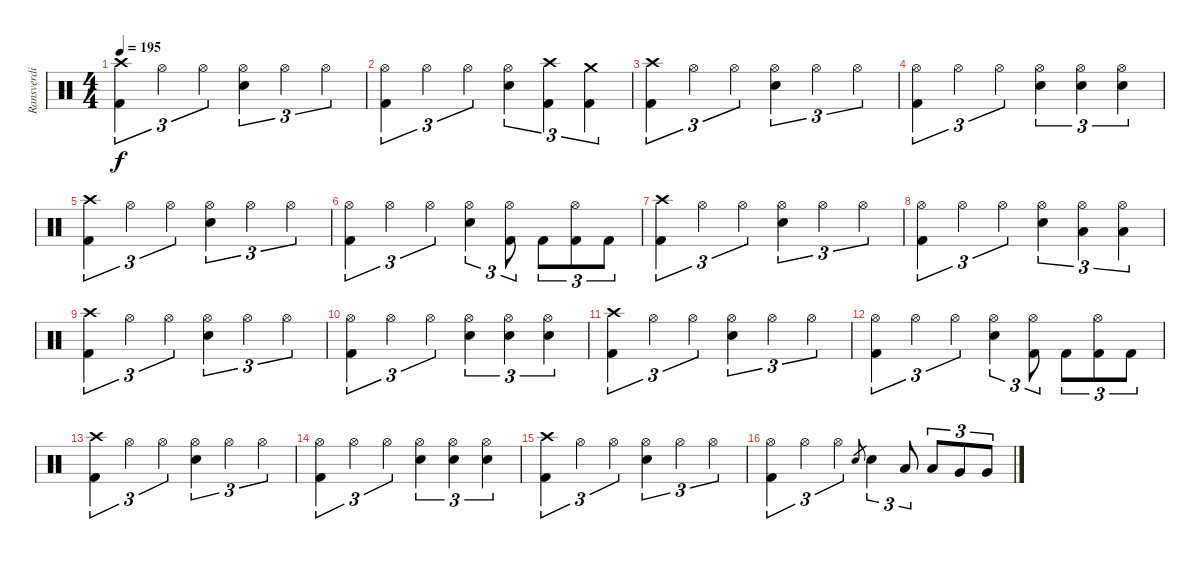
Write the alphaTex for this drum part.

\track ("Ransverdi" "Ransverdi") {instrument percussion}
\staff {score}
\articulation defaults
\ts (4 4)
\tempo 195
\clef neutral
\ks c
("Crash high (hit)" "Kick (hit) 2").4{tu (3 2) dy f} "Hi-Hat (open)".4{tu (3 2)} "Hi-Hat (open)".4{tu (3 2)} ("Hi-Hat (open)" "Snare (hit) 2").4{tu (3 2)} "Hi-Hat (open)".4{tu (3 2)} "Hi-Hat (open)".4{tu (3 2)} |
("Hi-Hat (open)" "Kick (hit) 2").4{tu (3 2)} "Hi-Hat (open)".4{tu (3 2)} "Hi-Hat (open)".4{tu (3 2)} ("Hi-Hat (open)" "Snare (hit) 2").4{tu (3 2)} ("Crash high (hit)" "Kick (hit) 2").4{tu (3 2)} ("Crash medium (hit)" "Kick (hit) 2").4{tu (3 2)} |
("Crash high (hit)" "Kick (hit) 2").4{tu (3 2)} "Hi-Hat (open)".4{tu (3 2)} "Hi-Hat (open)".4{tu (3 2)} ("Hi-Hat (open)" "Snare (hit) 2").4{tu (3 2)} "Hi-Hat (open)".4{tu (3 2)} "Hi-Hat (open)".4{tu (3 2)} |
("Hi-Hat (open)" "Kick (hit) 2").4{tu (3 2)} "Hi-Hat (open)".4{tu (3 2)} "Hi-Hat (open)".4{tu (3 2)} ("Hi-Hat (open)" "Snare (hit) 2").4{tu (3 2)} ("Hi-Hat (open)" "Snare (hit) 2").4{tu (3 2)} ("Hi-Hat (open)" "Snare (hit) 2").4{tu (3 2)} |
("Crash high (hit)" "Kick (hit) 2").4{tu (3 2)} "Hi-Hat (open)".4{tu (3 2)} "Hi-Hat (open)".4{tu (3 2)} ("Hi-Hat (open)" "Snare (hit) 2").4{tu (3 2)} "Hi-Hat (open)".4{tu (3 2)} "Hi-Hat (open)".4{tu (3 2)} |
("Hi-Hat (open)" "Kick (hit) 2").4{tu (3 2)} "Hi-Hat (open)".4{tu (3 2)} "Hi-Hat (open)".4{tu (3 2)} ("Hi-Hat (open)" "Snare (hit) 2").4{tu (3 2)} ("Hi-Hat (open)" "Kick (hit) 2").8{tu (3 2)} "Kick (hit) 2".8{tu (3 2)} ("Hi-Hat (open)" "Kick (hit) 2").8{tu (3 2)} "Kick (hit) 2".8{tu (3 2)} |
("Crash high (hit)" "Kick (hit) 2").4{tu (3 2)} "Hi-Hat (open)".4{tu (3 2)} "Hi-Hat (open)".4{tu (3 2)} ("Hi-Hat (open)" "Snare (hit) 2").4{tu (3 2)} "Hi-Hat (open)".4{tu (3 2)} "Hi-Hat (open)".4{tu (3 2)} |
("Hi-Hat (open)" "Kick (hit) 2").4{tu (3 2)} "Hi-Hat (open)".4{tu (3 2)} "Hi-Hat (open)".4{tu (3 2)} ("Hi-Hat (open)" "Snare (hit) 2").4{tu (3 2)} ("Hi-Hat (open)" "Low Tom (hit)").4{tu (3 2)} ("Hi-Hat (open)" "Low Tom (hit)").4{tu (3 2)} |
("Crash high (hit)" "Kick (hit) 2").4{tu (3 2)} "Hi-Hat (open)".4{tu (3 2)} "Hi-Hat (open)".4{tu (3 2)} ("Hi-Hat (open)" "Snare (hit) 2").4{tu (3 2)} "Hi-Hat (open)".4{tu (3 2)} "Hi-Hat (open)".4{tu (3 2)} |
("Hi-Hat (open)" "Kick (hit) 2").4{tu (3 2)} "Hi-Hat (open)".4{tu (3 2)} "Hi-Hat (open)".4{tu (3 2)} ("Hi-Hat (open)" "Snare (hit) 2").4{tu (3 2)} ("Hi-Hat (open)" "Snare (hit) 2").4{tu (3 2)} ("Hi-Hat (open)" "Snare (hit) 2").4{tu (3 2)} |
("Crash high (hit)" "Kick (hit) 2").4{tu (3 2)} "Hi-Hat (open)".4{tu (3 2)} "Hi-Hat (open)".4{tu (3 2)} ("Hi-Hat (open)" "Snare (hit) 2").4{tu (3 2)} "Hi-Hat (open)".4{tu (3 2)} "Hi-Hat (open)".4{tu (3 2)} |
("Hi-Hat (open)" "Kick (hit) 2").4{tu (3 2)} "Hi-Hat (open)".4{tu (3 2)} "Hi-Hat (open)".4{tu (3 2)} ("Hi-Hat (open)" "Snare (hit) 2").4{tu (3 2)} ("Hi-Hat (open)" "Kick (hit) 2").8{tu (3 2)} "Kick (hit) 2".8{tu (3 2)} ("Hi-Hat (open)" "Kick (hit) 2").8{tu (3 2)} "Kick (hit) 2".8{tu (3 2)} |
("Crash high (hit)" "Kick (hit) 2").4{tu (3 2)} "Hi-Hat (open)".4{tu (3 2)} "Hi-Hat (open)".4{tu (3 2)} ("Hi-Hat (open)" "Snare (hit) 2").4{tu (3 2)} "Hi-Hat (open)".4{tu (3 2)} "Hi-Hat (open)".4{tu (3 2)} |
("Hi-Hat (open)" "Kick (hit) 2").4{tu (3 2)} "Hi-Hat (open)".4{tu (3 2)} "Hi-Hat (open)".4{tu (3 2)} ("Hi-Hat (open)" "Snare (hit) 2").4{tu (3 2)} ("Hi-Hat (open)" "Snare (hit) 2").4{tu (3 2)} ("Hi-Hat (open)" "Snare (hit) 2").4{tu (3 2)} |
("Crash high (hit)" "Kick (hit) 2").4{tu (3 2)} "Hi-Hat (open)".4{tu (3 2)} "Hi-Hat (open)".4{tu (3 2)} ("Hi-Hat (open)" "Snare (hit) 2").4{tu (3 2)} "Hi-Hat (open)".4{tu (3 2)} "Hi-Hat (open)".4{tu (3 2)} |
("Hi-Hat (open)" "Kick (hit) 2").4{tu (3 2)} "Hi-Hat (open)".4{tu (3 2)} "Hi-Hat (open)".4{tu (3 2)} "Snare (hit) 2".8{gr} "Snare (hit) 2".4{tu (3 2)} "Low Tom (hit)".8{tu (3 2)} "Low Tom (hit)".8{tu (3 2)} "Very Low Tom (hit)".8{tu (3 2)} "Very Low Tom (hit)".8{tu (3 2)}
